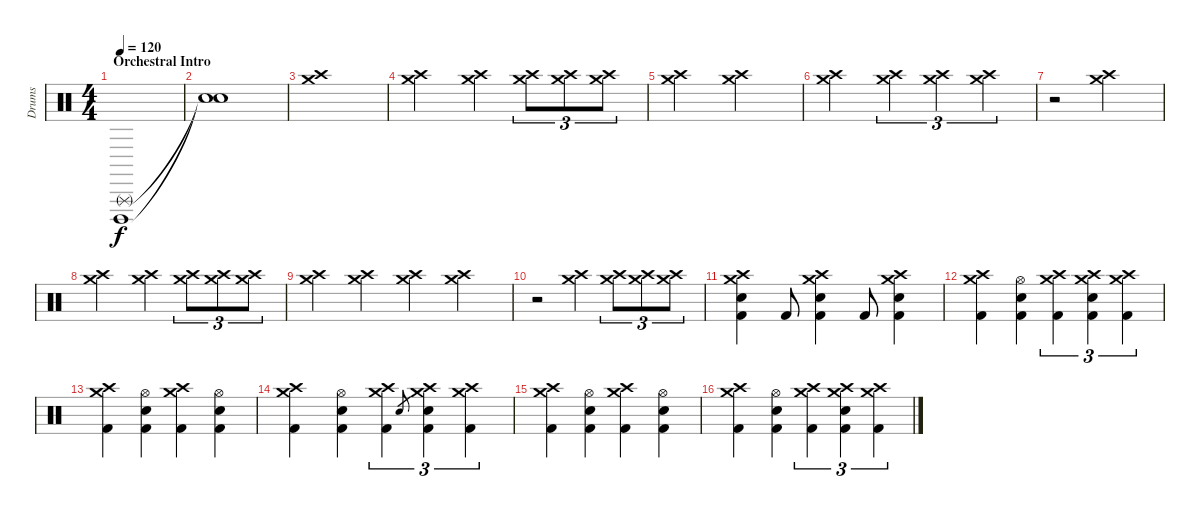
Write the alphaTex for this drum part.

\track ("Drums" "Drums") {instrument percussion}
\staff {score}
\articulation defaults
\ts (4 4)
\section ("" "Orchestral Intro")
\tempo 120
\clef neutral
\ks c
("Triangle (rnute)" "Cuica (open)").1{dy f} |
("Snare (hit)"{t} "Snare (hit)"{t}).1 |
("Crash medium (hit)" "Crash high (hit)").1 |
("Crash medium (hit)" "Crash high (hit)").2 ("Crash medium (hit)" "Crash high (hit)").4 ("Crash medium (hit)" "Crash high (hit)").8{tu (3 2)} ("Crash medium (hit)" "Crash high (hit)").8{tu (3 2)} ("Crash medium (hit)" "Crash high (hit)").8{tu (3 2)} |
("Crash medium (hit)" "Crash high (hit)").2 ("Crash medium (hit)" "Crash high (hit)").2 |
("Crash medium (hit)" "Crash high (hit)").2 ("Crash medium (hit)" "Crash high (hit)").4{tu (3 2)} ("Crash medium (hit)" "Crash high (hit)").4{tu (3 2)} ("Crash medium (hit)" "Crash high (hit)").4{tu (3 2)} |
r.2 ("Crash medium (hit)" "Crash high (hit)").2 |
("Crash medium (hit)" "Crash high (hit)").2 ("Crash medium (hit)" "Crash high (hit)").4 ("Crash medium (hit)" "Crash high (hit)").8{tu (3 2)} ("Crash medium (hit)" "Crash high (hit)").8{tu (3 2)} ("Crash medium (hit)" "Crash high (hit)").8{tu (3 2)} |
("Crash medium (hit)" "Crash high (hit)").4 ("Crash medium (hit)" "Crash high (hit)").4 ("Crash medium (hit)" "Crash high (hit)").4 ("Crash medium (hit)" "Crash high (hit)").4 |
r.2 ("Crash medium (hit)" "Crash high (hit)").4 ("Crash medium (hit)" "Crash high (hit)").8{tu (3 2)} ("Crash medium (hit)" "Crash high (hit)").8{tu (3 2)} ("Crash medium (hit)" "Crash high (hit)").8{tu (3 2)} |
("Crash medium (hit)" "Crash high (hit)" "Electric Snare (hit)" "Kick (hit) 2").4 "Kick (hit) 2".8 ("Crash medium (hit)" "Crash high (hit)" "Electric Snare (hit)" "Kick (hit) 2").4 "Kick (hit) 2".8 ("Crash medium (hit)" "Crash high (hit)" "Electric Snare (hit)" "Kick (hit) 2").4 |
("Crash medium (hit)" "Crash high (hit)" "Kick (hit) 2").4 ("Hi-Hat (open)" "Electric Snare (hit)" "Kick (hit) 2").4 ("Crash medium (hit)" "Crash high (hit)" "Kick (hit) 2").4{tu (3 2)} ("Crash medium (hit)" "Crash high (hit)" "Electric Snare (hit)" "Kick (hit) 2").4{tu (3 2)} ("Crash medium (hit)" "Crash high (hit)" "Kick (hit) 2").4{tu (3 2)} |
("Crash medium (hit)" "Crash high (hit)" "Kick (hit) 2").4 ("Hi-Hat (open)" "Electric Snare (hit)" "Kick (hit) 2").4 ("Crash medium (hit)" "Crash high (hit)" "Kick (hit) 2").4 ("Hi-Hat (open)" "Electric Snare (hit)" "Kick (hit) 2").4 |
("Crash medium (hit)" "Crash high (hit)" "Kick (hit) 2").4 ("Hi-Hat (open)" "Electric Snare (hit)" "Kick (hit) 2").4 ("Crash medium (hit)" "Crash high (hit)" "Kick (hit) 2").4{tu (3 2)} "Electric Snare (hit)".8{gr} ("Crash medium (hit)" "Crash high (hit)" "Electric Snare (hit)" "Kick (hit) 2").4{tu (3 2)} ("Crash medium (hit)" "Crash high (hit)" "Kick (hit) 2").4{tu (3 2)} |
("Crash medium (hit)" "Crash high (hit)" "Kick (hit) 2").4 ("Hi-Hat (open)" "Electric Snare (hit)" "Kick (hit) 2").4 ("Crash medium (hit)" "Crash high (hit)" "Kick (hit) 2").4 ("Hi-Hat (open)" "Electric Snare (hit)" "Kick (hit) 2").4 |
("Crash medium (hit)" "Crash high (hit)" "Kick (hit) 2").4 ("Hi-Hat (open)" "Electric Snare (hit)" "Kick (hit) 2").4 ("Crash medium (hit)" "Crash high (hit)" "Kick (hit) 2").4{tu (3 2)} ("Crash medium (hit)" "Crash high (hit)" "Electric Snare (hit)" "Kick (hit) 2").4{tu (3 2)} ("Crash medium (hit)" "Crash high (hit)" "Kick (hit) 2").4{tu (3 2)}
